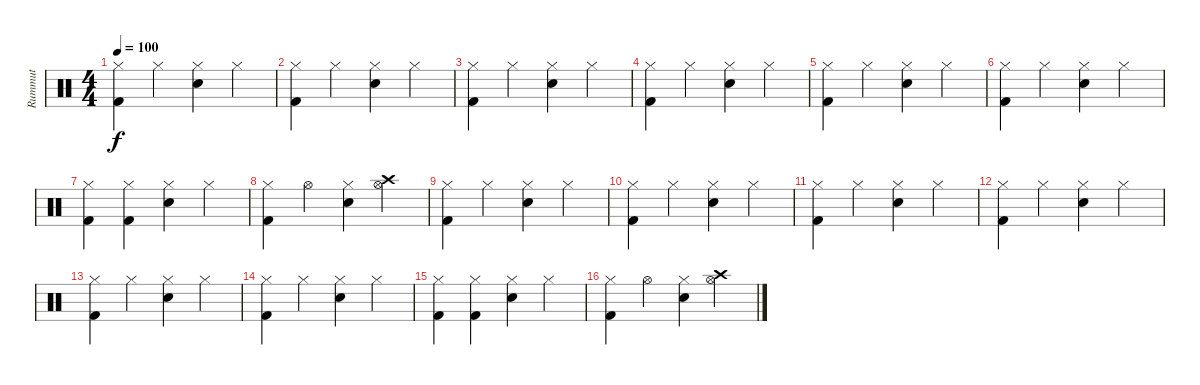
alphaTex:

\track ("Rummut" "Rummut") {instrument percussion}
\staff {score}
\articulation defaults
\ts (4 4)
\tempo 100
\clef neutral
\ks c
("Hi-Hat (closed)" "Kick (hit) 2").4{dy f} "Hi-Hat (closed)".4 ("Hi-Hat (closed)" "Snare (hit) 2").4 "Hi-Hat (closed)".4 |
("Hi-Hat (closed)" "Kick (hit) 2").4 "Hi-Hat (closed)".4 ("Hi-Hat (closed)" "Snare (hit) 2").4 "Hi-Hat (closed)".4 |
("Hi-Hat (closed)" "Kick (hit) 2").4 "Hi-Hat (closed)".4 ("Hi-Hat (closed)" "Snare (hit) 2").4 "Hi-Hat (closed)".4 |
("Hi-Hat (closed)" "Kick (hit) 2").4 "Hi-Hat (closed)".4 ("Hi-Hat (closed)" "Snare (hit) 2").4 "Hi-Hat (closed)".4 |
("Hi-Hat (closed)" "Kick (hit) 2").4 "Hi-Hat (closed)".4 ("Hi-Hat (closed)" "Snare (hit) 2").4 "Hi-Hat (closed)".4 |
("Hi-Hat (closed)" "Kick (hit) 2").4 "Hi-Hat (closed)".4 ("Hi-Hat (closed)" "Snare (hit) 2").4 "Hi-Hat (closed)".4 |
("Hi-Hat (closed)" "Kick (hit) 2").4 ("Hi-Hat (closed)" "Kick (hit) 2").4 ("Hi-Hat (closed)" "Snare (hit) 2").4 "Hi-Hat (closed)".4 |
("Hi-Hat (closed)" "Kick (hit) 2").4 "Hi-Hat (open)".4 ("Hi-Hat (closed)" "Snare (hit) 2").4 ("Hi-Hat (open)" "Crash high (hit)").4 |
("Hi-Hat (closed)" "Kick (hit) 2").4 "Hi-Hat (closed)".4 ("Hi-Hat (closed)" "Snare (hit) 2").4 "Hi-Hat (closed)".4 |
("Hi-Hat (closed)" "Kick (hit) 2").4 "Hi-Hat (closed)".4 ("Hi-Hat (closed)" "Snare (hit) 2").4 "Hi-Hat (closed)".4 |
("Hi-Hat (closed)" "Kick (hit) 2").4 "Hi-Hat (closed)".4 ("Hi-Hat (closed)" "Snare (hit) 2").4 "Hi-Hat (closed)".4 |
("Hi-Hat (closed)" "Kick (hit) 2").4 "Hi-Hat (closed)".4 ("Hi-Hat (closed)" "Snare (hit) 2").4 "Hi-Hat (closed)".4 |
("Hi-Hat (closed)" "Kick (hit) 2").4 "Hi-Hat (closed)".4 ("Hi-Hat (closed)" "Snare (hit) 2").4 "Hi-Hat (closed)".4 |
("Hi-Hat (closed)" "Kick (hit) 2").4 "Hi-Hat (closed)".4 ("Hi-Hat (closed)" "Snare (hit) 2").4 "Hi-Hat (closed)".4 |
("Hi-Hat (closed)" "Kick (hit) 2").4 ("Hi-Hat (closed)" "Kick (hit) 2").4 ("Hi-Hat (closed)" "Snare (hit) 2").4 "Hi-Hat (closed)".4 |
("Hi-Hat (closed)" "Kick (hit) 2").4 "Hi-Hat (open)".4 ("Hi-Hat (closed)" "Snare (hit) 2").4 ("Hi-Hat (open)" "Crash high (hit)").4
